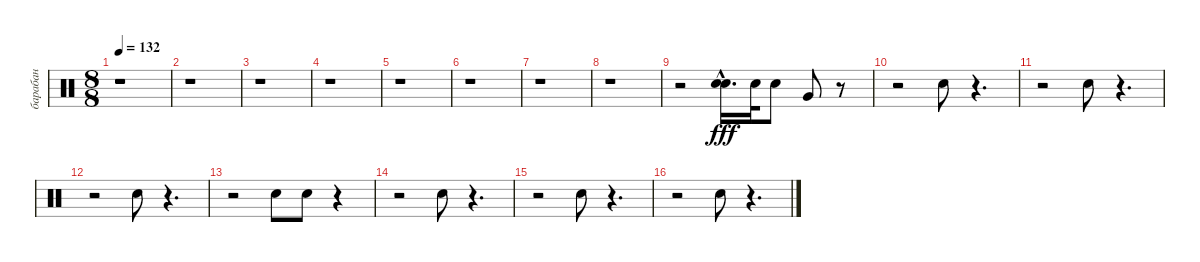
\track ("барабан" "барабан") {instrument percussion}
\staff {score}
\articulation defaults
\ts (8 8)
\tempo 132
\clef neutral
\ks c
r.1{dy fff} |
r.1 |
r.1 |
r.1 |
r.1 |
r.1 |
r.1 |
r.1 |
r.2 ("Snare (hit) 2"{hac} "Snare (hit) 2"{hac}).16{d} "Snare (hit) 2".32 "Snare (hit) 2".8 "Very Low Tom (hit)".8 r.8 |
r.2 "Snare (hit) 2".8 r.4{d} |
r.2 "Snare (hit) 2".8 r.4{d} |
r.2 "Snare (hit) 2".8 r.4{d} |
r.2 "Snare (hit) 2".8 "Snare (hit) 2".8 r.4 |
r.2 "Snare (hit) 2".8 r.4{d} |
r.2 "Snare (hit) 2".8 r.4{d} |
r.2 "Snare (hit) 2".8 r.4{d}
